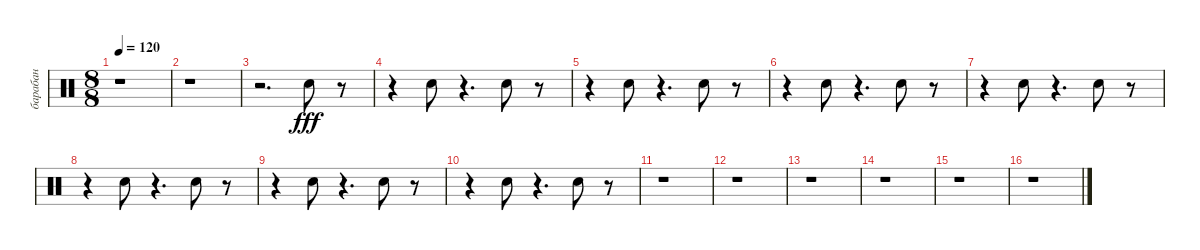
\track ("барабан" "барабан") {instrument percussion}
\staff {score}
\articulation defaults
\ts (8 8)
\tempo 120
\clef neutral
\ks c
r.1{dy fff} |
r.1 |
r.2{d} "Snare (hit) 2".8 r.8 |
r.4 "Snare (hit) 2".8 r.4{d} "Snare (hit) 2".8 r.8 |
r.4 "Snare (hit) 2".8 r.4{d} "Snare (hit) 2".8 r.8 |
r.4 "Snare (hit) 2".8 r.4{d} "Snare (hit) 2".8 r.8 |
r.4 "Snare (hit) 2".8 r.4{d} "Snare (hit) 2".8 r.8 |
r.4 "Snare (hit) 2".8 r.4{d} "Snare (hit) 2".8 r.8 |
r.4 "Snare (hit) 2".8 r.4{d} "Snare (hit) 2".8 r.8 |
r.4 "Snare (hit) 2".8 r.4{d} "Snare (hit) 2".8 r.8 |
r.1 |
r.1 |
r.1 |
r.1 |
r.1 |
r.1
